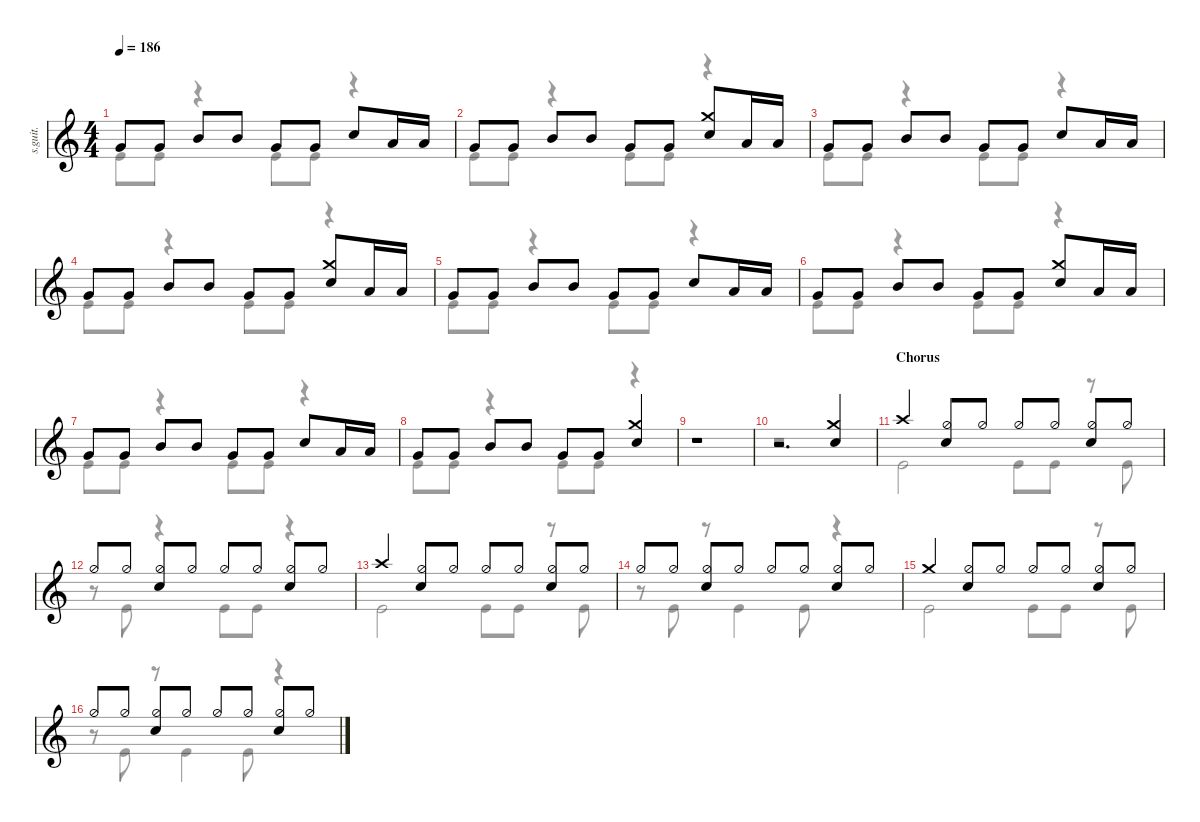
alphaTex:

\defaultSystemsLayout 4
\hideDynamics
\bracketExtendMode nobrackets
\track ("Tre Cool" "s.guit.") {instrument percussion}
\staff {score}
\articulation defaults
\voice
\ts (4 4)
\tempo 186
\clef g2
\ks c "Very Low Tom (hit)".8{dy f} "Very Low Tom (hit)".8 "Mid Tom (hit)".8 "Mid Tom (hit)".8 "Very Low Tom (hit)".8 "Very Low Tom (hit)".8 "Snare (hit) 2".8 "Low Tom (hit)".16 "Low Tom (hit)".16
|
"Very Low Tom (hit)".8 "Very Low Tom (hit)".8 "Mid Tom (hit)".8 "Mid Tom (hit)".8 "Very Low Tom (hit)".8 "Very Low Tom (hit)".8 ("Snare (hit) 2" "Crash medium (hit)").8 "Low Tom (hit)".16 "Low Tom (hit)".16 |
"Very Low Tom (hit)".8 "Very Low Tom (hit)".8 "Mid Tom (hit)".8 "Mid Tom (hit)".8 "Very Low Tom (hit)".8 "Very Low Tom (hit)".8 "Snare (hit) 2".8 "Low Tom (hit)".16 "Low Tom (hit)".16 |
"Very Low Tom (hit)".8 "Very Low Tom (hit)".8 "Mid Tom (hit)".8 "Mid Tom (hit)".8 "Very Low Tom (hit)".8 "Very Low Tom (hit)".8 ("Snare (hit) 2" "Crash medium (hit)").8 "Low Tom (hit)".16 "Low Tom (hit)".16 |
"Very Low Tom (hit)".8 "Very Low Tom (hit)".8 "Mid Tom (hit)".8 "Mid Tom (hit)".8 "Very Low Tom (hit)".8 "Very Low Tom (hit)".8 "Snare (hit) 2".8 "Low Tom (hit)".16 "Low Tom (hit)".16 |
"Very Low Tom (hit)".8 "Very Low Tom (hit)".8 "Mid Tom (hit)".8 "Mid Tom (hit)".8 "Very Low Tom (hit)".8 "Very Low Tom (hit)".8 ("Snare (hit) 2" "Crash medium (hit)").8 "Low Tom (hit)".16 "Low Tom (hit)".16 |
"Very Low Tom (hit)".8 "Very Low Tom (hit)".8 "Mid Tom (hit)".8 "Mid Tom (hit)".8 "Very Low Tom (hit)".8 "Very Low Tom (hit)".8 "Snare (hit) 2".8 "Low Tom (hit)".16 "Low Tom (hit)".16 |
"Very Low Tom (hit)".8 "Very Low Tom (hit)".8 "Mid Tom (hit)".8 "Mid Tom (hit)".8 "Very Low Tom (hit)".8 "Very Low Tom (hit)".8 ("Snare (hit) 2" "Crash medium (hit)").4 |
r.1 |
r.2{d} ("Snare (hit) 2" "Crash medium (hit)").4 |
\section ("" "Chorus")
"Crash high (hit)".4 ("Hi-Hat (half)" "Snare (hit) 2").8 "Hi-Hat (half)".8 "Hi-Hat (half)".8 "Hi-Hat (half)".8 ("Hi-Hat (half)" "Snare (hit) 2").8 "Hi-Hat (half)".8 |
"Hi-Hat (half)".8 "Hi-Hat (half)".8 ("Hi-Hat (half)" "Snare (hit) 2").8 "Hi-Hat (half)".8 "Hi-Hat (half)".8 "Hi-Hat (half)".8 ("Hi-Hat (half)" "Snare (hit) 2").8 "Hi-Hat (half)".8 |
"Crash high (hit)".4 ("Hi-Hat (half)" "Snare (hit) 2").8 "Hi-Hat (half)".8 "Hi-Hat (half)".8 "Hi-Hat (half)".8 ("Hi-Hat (half)" "Snare (hit) 2").8 "Hi-Hat (half)".8 |
"Hi-Hat (half)".8 "Hi-Hat (half)".8 ("Hi-Hat (half)" "Snare (hit) 2").8 "Hi-Hat (half)".8 "Hi-Hat (half)".8 "Hi-Hat (half)".8 ("Hi-Hat (half)" "Snare (hit) 2").8 "Hi-Hat (half)".8 |
"Crash medium (hit)".4 ("Hi-Hat (half)" "Snare (hit) 2").8 "Hi-Hat (half)".8 "Hi-Hat (half)".8 "Hi-Hat (half)".8 ("Hi-Hat (half)" "Snare (hit) 2").8 "Hi-Hat (half)".8 |
"Hi-Hat (half)".8 "Hi-Hat (half)".8 ("Hi-Hat (half)" "Snare (hit) 2").8 "Hi-Hat (half)".8 "Hi-Hat (half)".8 "Hi-Hat (half)".8 ("Hi-Hat (half)" "Snare (hit) 2").8 "Hi-Hat (half)".8
\voice
\clef g2
\ottava regular
\simile none
\ks c "Kick (hit)".8{dy f} "Kick (hit)".8
r.4 "Kick (hit)".8 "Kick (hit)".8 r.4 |
"Kick (hit)".8 "Kick (hit)".8 r.4 "Kick (hit)".8 "Kick (hit)".8 r.4 |
"Kick (hit)".8 "Kick (hit)".8 r.4 "Kick (hit)".8 "Kick (hit)".8 r.4 |
"Kick (hit)".8 "Kick (hit)".8 r.4 "Kick (hit)".8 "Kick (hit)".8 r.4 |
"Kick (hit)".8 "Kick (hit)".8 r.4 "Kick (hit)".8 "Kick (hit)".8 r.4 |
"Kick (hit)".8 "Kick (hit)".8 r.4 "Kick (hit)".8 "Kick (hit)".8 r.4 |
"Kick (hit)".8 "Kick (hit)".8 r.4 "Kick (hit)".8 "Kick (hit)".8 r.4 |
"Kick (hit)".8 "Kick (hit)".8 r.4 "Kick (hit)".8 "Kick (hit)".8 r.4 |
r.1 |
r.1 |
"Kick (hit)".2 "Kick (hit)".8 "Kick (hit)".8 r.8 "Kick (hit)".8 |
r.8 "Kick (hit)".8 r.4 "Kick (hit)".8 "Kick (hit)".8 r.4 |
"Kick (hit)".2 "Kick (hit)".8 "Kick (hit)".8 r.8 "Kick (hit)".8 |
r.8 "Kick (hit)".8 r.8 "Kick (hit)".4 "Kick (hit)".8 r.4 |
"Kick (hit)".2 "Kick (hit)".8 "Kick (hit)".8 r.8 "Kick (hit)".8 |
r.8 "Kick (hit)".8 r.8 "Kick (hit)".4 "Kick (hit)".8 r.4
